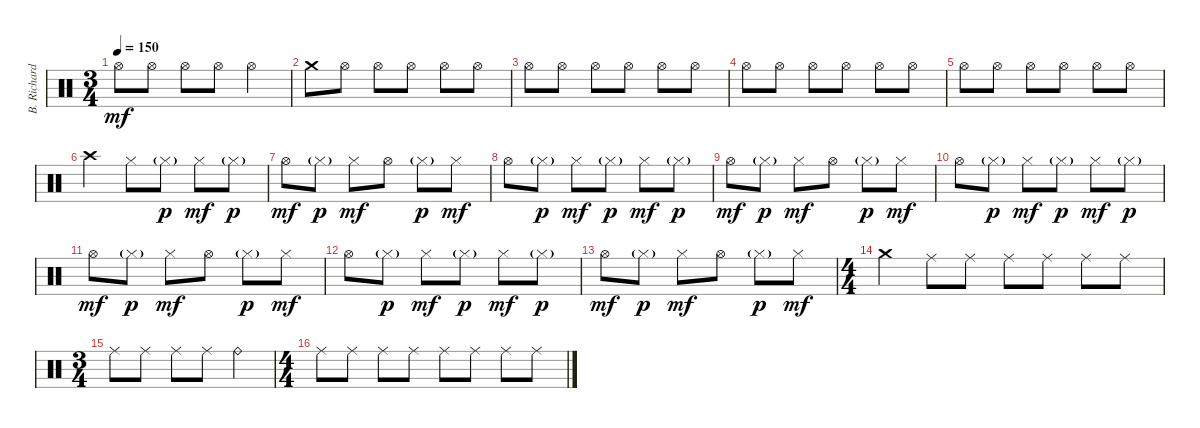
\track ("B. Richardson Drums" "B. Richard") {instrument percussion}
\staff {score}
\articulation defaults
\ts (3 4)
\tempo 150
\clef neutral
\ks c "Hi-Hat (open)".8{dy mf} "Hi-Hat (open)".8 "Hi-Hat (open)".8 "Hi-Hat (open)".8 "Hi-Hat (open)".4
|
"Crash medium (hit)".8 "Hi-Hat (open)".8 "Hi-Hat (open)".8 "Hi-Hat (open)".8 "Hi-Hat (open)".8 "Hi-Hat (open)".8 |
"Hi-Hat (open)".8 "Hi-Hat (open)".8 "Hi-Hat (open)".8 "Hi-Hat (open)".8 "Hi-Hat (open)".8 "Hi-Hat (open)".8 |
"Hi-Hat (open)".8 "Hi-Hat (open)".8 "Hi-Hat (open)".8 "Hi-Hat (open)".8 "Hi-Hat (open)".8 "Hi-Hat (open)".8 |
"Hi-Hat (open)".8 "Hi-Hat (open)".8 "Hi-Hat (open)".8 "Hi-Hat (open)".8 "Hi-Hat (open)".8 "Hi-Hat (open)".8 |
"Crash high (hit)".4 "Hi-Hat (closed)".8 "Hi-Hat (closed)"{g}.8{dy p} "Hi-Hat (closed)".8{dy mf} "Hi-Hat (closed)"{g}.8{dy p} |
"Hi-Hat (open)".8{dy mf} "Hi-Hat (closed)"{g}.8{dy p} "Hi-Hat (closed)".8{dy mf} "Hi-Hat (open)".8 "Hi-Hat (closed)"{g}.8{dy p} "Hi-Hat (closed)".8{dy mf} |
"Hi-Hat (open)".8 "Hi-Hat (closed)"{g}.8{dy p} "Hi-Hat (closed)".8{dy mf} "Hi-Hat (closed)"{g}.8{dy p} "Hi-Hat (closed)".8{dy mf} "Hi-Hat (closed)"{g}.8{dy p} |
"Hi-Hat (open)".8{dy mf} "Hi-Hat (closed)"{g}.8{dy p} "Hi-Hat (closed)".8{dy mf} "Hi-Hat (open)".8 "Hi-Hat (closed)"{g}.8{dy p} "Hi-Hat (closed)".8{dy mf} |
"Hi-Hat (open)".8 "Hi-Hat (closed)"{g}.8{dy p} "Hi-Hat (closed)".8{dy mf} "Hi-Hat (closed)"{g}.8{dy p} "Hi-Hat (closed)".8{dy mf} "Hi-Hat (closed)"{g}.8{dy p} |
"Hi-Hat (open)".8{dy mf} "Hi-Hat (closed)"{g}.8{dy p} "Hi-Hat (closed)".8{dy mf} "Hi-Hat (open)".8 "Hi-Hat (closed)"{g}.8{dy p} "Hi-Hat (closed)".8{dy mf} |
"Hi-Hat (open)".8 "Hi-Hat (closed)"{g}.8{dy p} "Hi-Hat (closed)".8{dy mf} "Hi-Hat (closed)"{g}.8{dy p} "Hi-Hat (closed)".8{dy mf} "Hi-Hat (closed)"{g}.8{dy p} |
"Hi-Hat (open)".8{dy mf} "Hi-Hat (closed)"{g}.8{dy p} "Hi-Hat (closed)".8{dy mf} "Hi-Hat (open)".8 "Hi-Hat (closed)"{g}.8{dy p} "Hi-Hat (closed)".8{dy mf} |
\ts (4 4)
"Crash medium (hit)".4 "Ride (middle)".8 "Ride (middle)".8 "Ride (middle)".8 "Ride (middle)".8 "Ride (middle)".8 "Ride (middle)".8 |
\ts (3 4)
"Ride (middle)".8 "Ride (middle)".8 "Ride (middle)".8 "Ride (middle)".8 "Ride (bell)".4 |
\ts (4 4)
"Ride (middle)".8 "Ride (middle)".8 "Ride (middle)".8 "Ride (middle)".8 "Ride (middle)".8 "Ride (middle)".8 "Ride (middle)".8 "Ride (middle)".8
